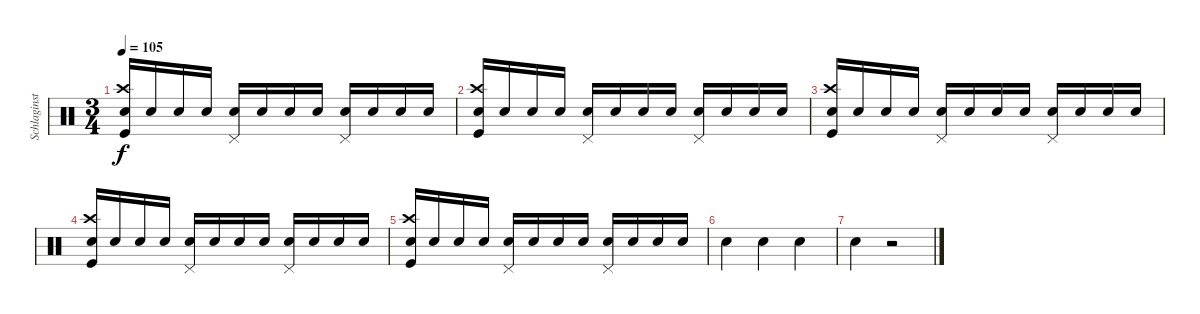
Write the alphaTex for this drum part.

\track ("Schlaginstrumente - Auswahl" "Schlaginst") {instrument percussion}
\staff {score}
\articulation defaults
\ts (3 4)
\tempo 105
\clef neutral
\ks c
("Snare (hit) 2" "Crash high (hit)" "Kick (hit)").16{dy f} "Snare (hit) 2".16 "Snare (hit) 2".16 "Snare (hit) 2".16 ("Snare (hit) 2" "Pedal Hi-Hat (hit)").16 "Snare (hit) 2".16 "Snare (hit) 2".16 "Snare (hit) 2".16 ("Snare (hit) 2" "Pedal Hi-Hat (hit)").16 "Snare (hit) 2".16 "Snare (hit) 2".16 "Snare (hit) 2".16 |
("Snare (hit) 2" "Crash high (hit)" "Kick (hit)").16 "Snare (hit) 2".16 "Snare (hit) 2".16 "Snare (hit) 2".16 ("Snare (hit) 2" "Pedal Hi-Hat (hit)").16 "Snare (hit) 2".16 "Snare (hit) 2".16 "Snare (hit) 2".16 ("Snare (hit) 2" "Pedal Hi-Hat (hit)").16 "Snare (hit) 2".16 "Snare (hit) 2".16 "Snare (hit) 2".16 |
("Snare (hit) 2" "Crash high (hit)" "Kick (hit)").16 "Snare (hit) 2".16 "Snare (hit) 2".16 "Snare (hit) 2".16 ("Snare (hit) 2" "Pedal Hi-Hat (hit)").16 "Snare (hit) 2".16 "Snare (hit) 2".16 "Snare (hit) 2".16 ("Snare (hit) 2" "Pedal Hi-Hat (hit)").16 "Snare (hit) 2".16 "Snare (hit) 2".16 "Snare (hit) 2".16 |
("Snare (hit) 2" "Crash high (hit)" "Kick (hit)").16 "Snare (hit) 2".16 "Snare (hit) 2".16 "Snare (hit) 2".16 ("Snare (hit) 2" "Pedal Hi-Hat (hit)").16 "Snare (hit) 2".16 "Snare (hit) 2".16 "Snare (hit) 2".16 ("Snare (hit) 2" "Pedal Hi-Hat (hit)").16 "Snare (hit) 2".16 "Snare (hit) 2".16 "Snare (hit) 2".16 |
("Snare (hit) 2" "Crash high (hit)" "Kick (hit)").16 "Snare (hit) 2".16 "Snare (hit) 2".16 "Snare (hit) 2".16 ("Snare (hit) 2" "Pedal Hi-Hat (hit)").16 "Snare (hit) 2".16 "Snare (hit) 2".16 "Snare (hit) 2".16 ("Snare (hit) 2" "Pedal Hi-Hat (hit)").16 "Snare (hit) 2".16 "Snare (hit) 2".16 "Snare (hit) 2".16 |
"Snare (hit) 2".4 "Snare (hit) 2".4 "Snare (hit) 2".4 |
"Snare (hit) 2".4 r.2
